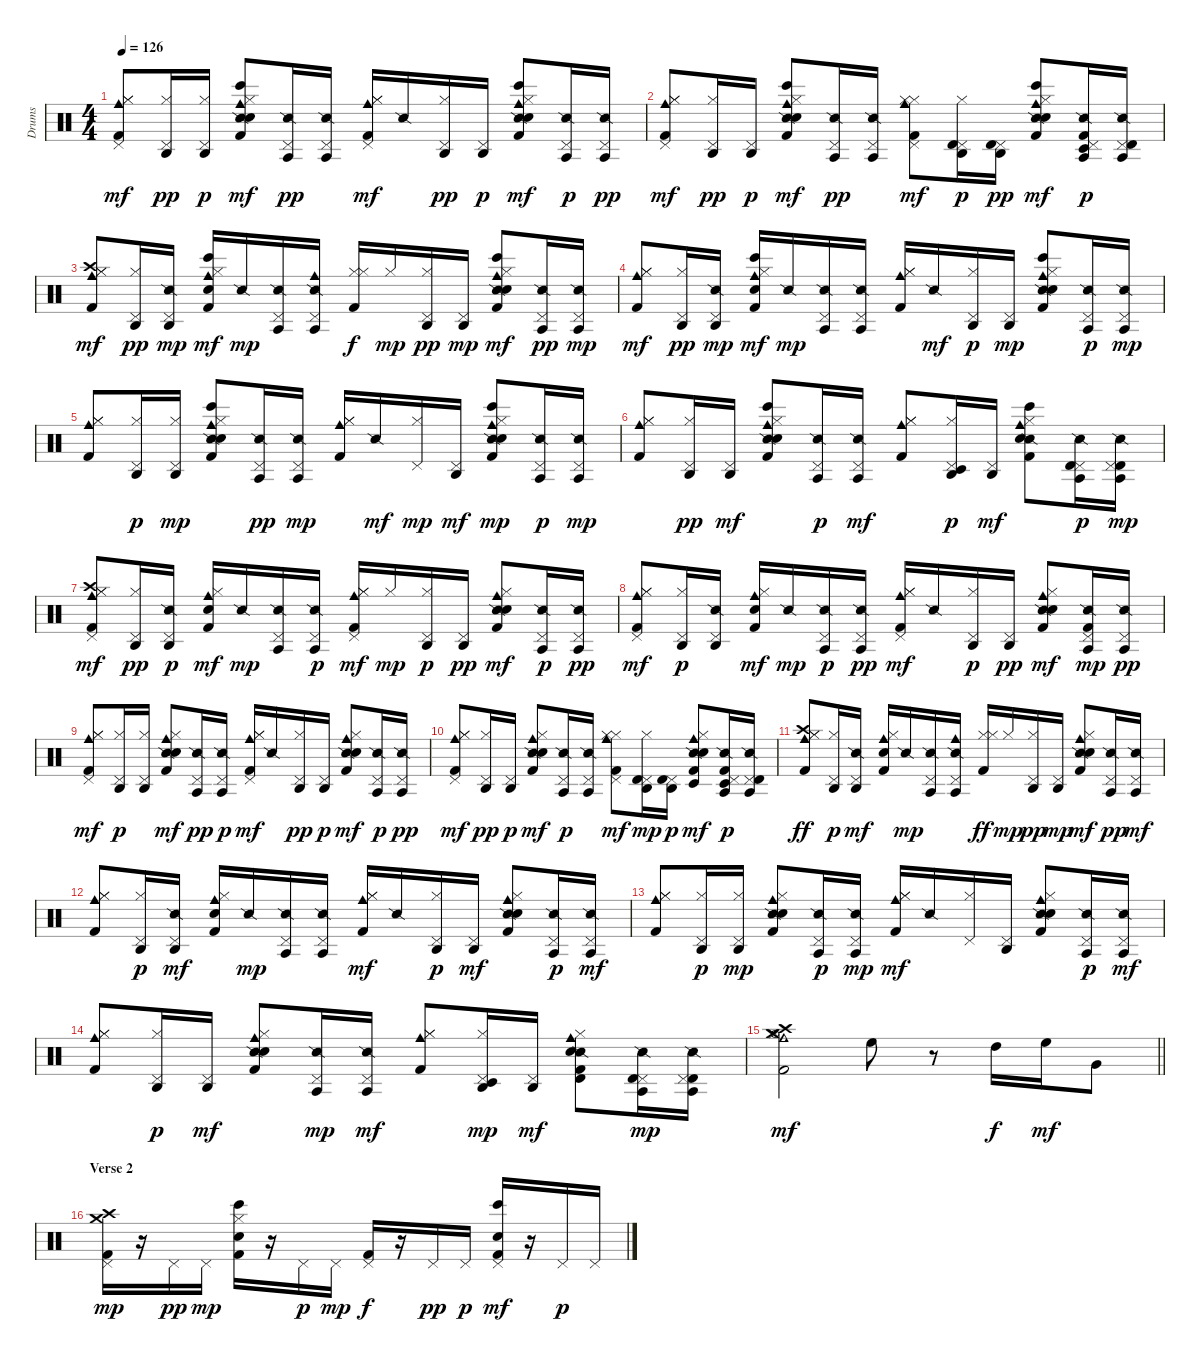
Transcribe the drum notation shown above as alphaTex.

\track ("Drums" "Drums") {instrument percussion}
\staff {score}
\articulation defaults
\ts (4 4)
\tempo 126
\clef neutral
\ks c
("Hi-Hat (closed)" "Kick (hit) 2" "Hi-Hat (closed)" "Pedal Hi-Hat (hit)" "Cowbell medium (hit)").8{dy mf} ("Hi-Hat (closed)" "Pedal Hi-Hat (hit)" "Agogo high (hit)").16{dy pp} ("Hi-Hat (closed)" "Pedal Hi-Hat (hit)" "Agogo high (hit)").16{dy p} ("Bongo High (hit)" "Snare (side stick) 2" "Kick (hit) 2" "Hand Clap (hit)" "Hi-Hat (closed)" "Cowbell medium (hit)").8{dy mf} ("Snare (side stick) 2" "Pedal Hi-Hat (hit)" "Agogo tow (hit)").16{dy pp} ("Snare (side stick) 2" "Pedal Hi-Hat (hit)" "Agogo tow (hit)").16 ("Hi-Hat (closed)" "Kick (hit) 2" "Hi-Hat (closed)" "Pedal Hi-Hat (hit)" "Cowbell medium (hit)").16{dy mf} "Snare (side stick) 2".16 ("Hi-Hat (closed)" "Pedal Hi-Hat (hit)" "Agogo high (hit)").16{dy pp} ("Pedal Hi-Hat (hit)" "Agogo high (hit)").16{dy p} ("Bongo High (hit)" "Snare (side stick) 2" "Kick (hit) 2" "Hand Clap (hit)" "Hi-Hat (closed)" "Cowbell medium (hit)").8{dy mf} ("Snare (side stick) 2" "Pedal Hi-Hat (hit)" "Agogo tow (hit)").16{dy p} ("Snare (side stick) 2" "Pedal Hi-Hat (hit)" "Agogo tow (hit)").16{dy pp} |
("Hi-Hat (closed)" "Kick (hit) 2" "Hi-Hat (closed)" "Pedal Hi-Hat (hit)" "Cowbell medium (hit)").8{dy mf} ("Hi-Hat (closed)" "Pedal Hi-Hat (hit)" "Agogo high (hit)").16{dy pp} ("Pedal Hi-Hat (hit)" "Agogo high (hit)").16{dy p} ("Bongo High (hit)" "Snare (side stick) 2" "Kick (hit) 2" "Hand Clap (hit)" "Hi-Hat (closed)" "Cowbell medium (hit)").8{dy mf} ("Snare (side stick) 2" "Pedal Hi-Hat (hit)" "Agogo tow (hit)").16{dy pp} ("Snare (side stick) 2" "Pedal Hi-Hat (hit)" "Agogo tow (hit)").16 ("Hi-Hat (closed)" "Kick (hit) 2" "Hi-Hat (closed)" "Pedal Hi-Hat (hit)" "Cowbell medium (hit)").8{dy mf} ("Hi-Hat (closed)" "Pedal Hi-Hat (hit)" "Timbale high (hit)" "Agogo high (hit)").16{dy p} ("Pedal Hi-Hat (hit)" "Timbale high (hit)" "Agogo high (hit)").16{dy pp} ("Bongo High (hit)" "Snare (side stick) 2" "Kick (hit) 2" "Hand Clap (hit)" "Hi-Hat (closed)" "Cowbell medium (hit)").8{dy mf} ("Snare (side stick) 2" "Kick (hit) 2" "Pedal Hi-Hat (hit)" "Timbale low (hit)" "Agogo tow (hit)").16{dy p} ("Snare (side stick) 2" "Pedal Hi-Hat (hit)" "Timbale high (hit)" "Agogo tow (hit)").16 |
("Hi-Hat (closed)" "Kick (hit) 2" "Hi-Hat (closed)" "Crash high (hit)" "Cowbell medium (hit)").8{dy mf} ("Hi-Hat (closed)" "Pedal Hi-Hat (hit)" "Agogo high (hit)").16{dy pp} ("Snare (side stick) 2" "Agogo high (hit)" "Pedal Hi-Hat (hit)").16{dy mp} ("Bongo High (hit)" "Kick (hit) 2" "Hand Clap (hit)" "Hi-Hat (closed)" "Cowbell medium (hit)").16{dy mf} "Snare (side stick) 2".16{dy mp} ("Snare (side stick) 2" "Pedal Hi-Hat (hit)" "Agogo tow (hit)").16 ("Snare (side stick) 2" "Cowbell medium (hit)" "Agogo tow (hit)" "Pedal Hi-Hat (hit)").16 ("Hi-Hat (closed)" "Kick (hit) 2" "Hi-Hat (closed)").16{dy f} "Hi-Hat (closed)".16{dy mp} ("Hi-Hat (closed)" "Pedal Hi-Hat (hit)" "Agogo high (hit)").16{dy pp} ("Agogo high (hit)" "Pedal Hi-Hat (hit)").16{dy mp} ("Bongo High (hit)" "Snare (side stick) 2" "Kick (hit) 2" "Hand Clap (hit)" "Hi-Hat (closed)" "Cowbell medium (hit)").8{dy mf} ("Snare (side stick) 2" "Pedal Hi-Hat (hit)" "Agogo tow (hit)").16{dy pp} ("Snare (side stick) 2" "Agogo tow (hit)" "Pedal Hi-Hat (hit)").16{dy mp} |
("Hi-Hat (closed)" "Kick (hit) 2" "Hi-Hat (closed)" "Cowbell medium (hit)").8{dy mf} ("Hi-Hat (closed)" "Pedal Hi-Hat (hit)" "Agogo high (hit)").16{dy pp} ("Snare (side stick) 2" "Agogo high (hit)" "Pedal Hi-Hat (hit)").16{dy mp} ("Bongo High (hit)" "Kick (hit) 2" "Hand Clap (hit)" "Hi-Hat (closed)" "Cowbell medium (hit)").16{dy mf} "Snare (side stick) 2".16{dy mp} ("Snare (side stick) 2" "Pedal Hi-Hat (hit)" "Agogo tow (hit)").16 ("Snare (side stick) 2" "Agogo tow (hit)" "Pedal Hi-Hat (hit)").16 ("Hi-Hat (closed)" "Kick (hit) 2" "Hi-Hat (closed)" "Cowbell medium (hit)").16 "Snare (side stick) 2".16{dy mf} ("Hi-Hat (closed)" "Pedal Hi-Hat (hit)" "Agogo high (hit)").16{dy p} ("Agogo high (hit)" "Pedal Hi-Hat (hit)").16{dy mp} ("Bongo High (hit)" "Snare (side stick) 2" "Kick (hit) 2" "Hand Clap (hit)" "Hi-Hat (closed)" "Cowbell medium (hit)").8 ("Snare (side stick) 2" "Pedal Hi-Hat (hit)" "Agogo tow (hit)").16{dy p} ("Snare (side stick) 2" "Agogo tow (hit)" "Pedal Hi-Hat (hit)").16{dy mp} |
("Hi-Hat (closed)" "Kick (hit) 2" "Hi-Hat (closed)" "Cowbell medium (hit)").8 ("Hi-Hat (closed)" "Pedal Hi-Hat (hit)" "Agogo high (hit)").16{dy p} ("Hi-Hat (closed)" "Agogo high (hit)" "Pedal Hi-Hat (hit)").16{dy mp} ("Bongo High (hit)" "Snare (side stick) 2" "Kick (hit) 2" "Hand Clap (hit)" "Hi-Hat (closed)" "Cowbell medium (hit)").8 ("Snare (side stick) 2" "Pedal Hi-Hat (hit)" "Agogo tow (hit)").16{dy pp} ("Snare (side stick) 2" "Agogo tow (hit)" "Pedal Hi-Hat (hit)").16{dy mp} ("Hi-Hat (closed)" "Kick (hit) 2" "Hi-Hat (closed)" "Cowbell medium (hit)").16 "Snare (side stick) 2".16{dy mf} ("Hi-Hat (closed)" "Pedal Hi-Hat (hit)").16{dy mp} ("Agogo high (hit)" "Pedal Hi-Hat (hit)").16{dy mf} ("Bongo High (hit)" "Snare (side stick) 2" "Kick (hit) 2" "Hand Clap (hit)" "Hi-Hat (closed)" "Cowbell medium (hit)").8{dy mp} ("Snare (side stick) 2" "Pedal Hi-Hat (hit)" "Agogo tow (hit)").16{dy p} ("Snare (side stick) 2" "Agogo tow (hit)" "Pedal Hi-Hat (hit)").16{dy mp} |
("Hi-Hat (closed)" "Kick (hit) 2" "Hi-Hat (closed)" "Cowbell medium (hit)").8 ("Hi-Hat (closed)" "Pedal Hi-Hat (hit)" "Agogo high (hit)").16{dy pp} ("Agogo high (hit)" "Pedal Hi-Hat (hit)").16{dy mf} ("Bongo High (hit)" "Snare (side stick) 2" "Kick (hit) 2" "Hand Clap (hit)" "Hi-Hat (closed)" "Cowbell medium (hit)").8 ("Snare (side stick) 2" "Pedal Hi-Hat (hit)" "Agogo tow (hit)").16{dy p} ("Snare (side stick) 2" "Agogo tow (hit)" "Pedal Hi-Hat (hit)").16{dy mf} ("Hi-Hat (closed)" "Kick (hit) 2" "Hi-Hat (closed)" "Cowbell medium (hit)").8 ("Hi-Hat (closed)" "Pedal Hi-Hat (hit)" "Timbale low (hit)" "Agogo high (hit)").16{dy p} ("Agogo high (hit)" "Pedal Hi-Hat (hit)").16{dy mf} ("Bongo High (hit)" "Snare (side stick) 2" "Kick (hit) 2" "Hand Clap (hit)" "Hi-Hat (closed)" "Cowbell medium (hit)").8 ("Snare (side stick) 2" "Pedal Hi-Hat (hit)" "Timbale high (hit)" "Agogo tow (hit)").16{dy p} ("Snare (side stick) 2" "Timbale high (hit)" "Agogo tow (hit)" "Pedal Hi-Hat (hit)").16{dy mp} |
("Hi-Hat (closed)" "Kick (hit) 2" "Hi-Hat (closed)" "Pedal Hi-Hat (hit)" "Crash high (hit)" "Cowbell medium (hit)").8{dy mf} ("Hi-Hat (closed)" "Pedal Hi-Hat (hit)" "Agogo high (hit)").16{dy pp} ("Snare (side stick) 2" "Pedal Hi-Hat (hit)" "Agogo high (hit)").16{dy p} ("Kick (hit) 2" "Hand Clap (hit)" "Hi-Hat (closed)" "Cowbell medium (hit)").16{dy mf} "Snare (side stick) 2".16{dy mp} ("Snare (side stick) 2" "Pedal Hi-Hat (hit)" "Agogo tow (hit)").16 ("Snare (side stick) 2" "Pedal Hi-Hat (hit)" "Agogo tow (hit)").16{dy p} ("Hi-Hat (closed)" "Kick (hit) 2" "Hi-Hat (closed)" "Pedal Hi-Hat (hit)" "Cowbell medium (hit)").16{dy mf} "Hi-Hat (closed)".16{dy mp} ("Hi-Hat (closed)" "Pedal Hi-Hat (hit)" "Agogo high (hit)").16{dy p} ("Pedal Hi-Hat (hit)" "Agogo high (hit)").16{dy pp} ("Snare (side stick) 2" "Kick (hit) 2" "Hand Clap (hit)" "Hi-Hat (closed)" "Cowbell medium (hit)").8{dy mf} ("Snare (side stick) 2" "Pedal Hi-Hat (hit)" "Agogo tow (hit)").16{dy p} ("Snare (side stick) 2" "Pedal Hi-Hat (hit)" "Agogo tow (hit)").16{dy pp} |
("Hi-Hat (closed)" "Kick (hit) 2" "Hi-Hat (closed)" "Pedal Hi-Hat (hit)" "Cowbell medium (hit)").8{dy mf} ("Hi-Hat (closed)" "Pedal Hi-Hat (hit)" "Agogo high (hit)").16{dy p} ("Snare (side stick) 2" "Pedal Hi-Hat (hit)" "Agogo high (hit)").16 ("Kick (hit) 2" "Hand Clap (hit)" "Hi-Hat (closed)" "Cowbell medium (hit)").16{dy mf} "Snare (side stick) 2".16{dy mp} ("Snare (side stick) 2" "Pedal Hi-Hat (hit)" "Agogo tow (hit)").16{dy p} ("Snare (side stick) 2" "Pedal Hi-Hat (hit)" "Agogo tow (hit)").16{dy pp} ("Hi-Hat (closed)" "Kick (hit) 2" "Hi-Hat (closed)" "Pedal Hi-Hat (hit)" "Cowbell medium (hit)").16{dy mf} "Snare (side stick) 2".16 ("Hi-Hat (closed)" "Pedal Hi-Hat (hit)" "Agogo high (hit)").16{dy p} ("Pedal Hi-Hat (hit)" "Agogo high (hit)").16{dy pp} ("Snare (side stick) 2" "Kick (hit) 2" "Hand Clap (hit)" "Hi-Hat (closed)" "Cowbell medium (hit)").8{dy mf} ("Snare (side stick) 2" "Kick (hit) 2" "Pedal Hi-Hat (hit)" "Agogo tow (hit)").16{dy mp} ("Snare (side stick) 2" "Pedal Hi-Hat (hit)" "Agogo tow (hit)").16{dy pp} |
("Hi-Hat (closed)" "Kick (hit) 2" "Hi-Hat (closed)" "Pedal Hi-Hat (hit)" "Cowbell medium (hit)").8{dy mf} ("Hi-Hat (closed)" "Pedal Hi-Hat (hit)" "Agogo high (hit)").16{dy p} ("Hi-Hat (closed)" "Pedal Hi-Hat (hit)" "Agogo high (hit)").16 ("Snare (side stick) 2" "Kick (hit) 2" "Hand Clap (hit)" "Hi-Hat (closed)" "Cowbell medium (hit)").8{dy mf} ("Snare (side stick) 2" "Pedal Hi-Hat (hit)" "Agogo tow (hit)").16{dy pp} ("Snare (side stick) 2" "Pedal Hi-Hat (hit)" "Agogo tow (hit)").16{dy p} ("Hi-Hat (closed)" "Kick (hit) 2" "Hi-Hat (closed)" "Pedal Hi-Hat (hit)" "Cowbell medium (hit)").16{dy mf} "Snare (side stick) 2".16 ("Hi-Hat (closed)" "Pedal Hi-Hat (hit)" "Agogo high (hit)").16{dy pp} ("Pedal Hi-Hat (hit)" "Agogo high (hit)").16{dy p} ("Snare (side stick) 2" "Kick (hit) 2" "Hand Clap (hit)" "Hi-Hat (closed)" "Cowbell medium (hit)").8{dy mf} ("Snare (side stick) 2" "Pedal Hi-Hat (hit)" "Agogo tow (hit)").16{dy p} ("Snare (side stick) 2" "Pedal Hi-Hat (hit)" "Agogo tow (hit)").16{dy pp} |
("Hi-Hat (closed)" "Kick (hit) 2" "Hi-Hat (closed)" "Pedal Hi-Hat (hit)" "Cowbell medium (hit)").8{dy mf} ("Hi-Hat (closed)" "Pedal Hi-Hat (hit)" "Agogo high (hit)").16{dy pp} ("Pedal Hi-Hat (hit)" "Agogo high (hit)").16{dy p} ("Snare (side stick) 2" "Kick (hit) 2" "Hand Clap (hit)" "Hi-Hat (closed)" "Cowbell medium (hit)").8{dy mf} ("Snare (side stick) 2" "Pedal Hi-Hat (hit)" "Agogo tow (hit)").16{dy p} ("Snare (side stick) 2" "Pedal Hi-Hat (hit)" "Agogo tow (hit)").16 ("Hi-Hat (closed)" "Kick (hit) 2" "Hi-Hat (closed)" "Pedal Hi-Hat (hit)" "Cowbell medium (hit)").8{dy mf} ("Hi-Hat (closed)" "Pedal Hi-Hat (hit)" "Timbale high (hit)" "Agogo high (hit)").16{dy mp} ("Pedal Hi-Hat (hit)" "Timbale high (hit)" "Agogo high (hit)").16{dy p} ("Snare (side stick) 2" "Kick (hit) 2" "Hand Clap (hit)" "Hi-Hat (closed)" "Cowbell medium (hit)" "Timbale low (hit)").8{dy mf} ("Snare (side stick) 2" "Kick (hit) 2" "Pedal Hi-Hat (hit)" "Timbale low (hit)" "Agogo tow (hit)").16{dy p} ("Snare (side stick) 2" "Pedal Hi-Hat (hit)" "Timbale high (hit)" "Agogo tow (hit)").16 |
("Hi-Hat (closed)" "Kick (hit) 2" "Hi-Hat (closed)" "Crash high (hit)" "Cowbell medium (hit)").8{dy ff} ("Hi-Hat (closed)" "Pedal Hi-Hat (hit)" "Agogo high (hit)").16{dy p} ("Snare (side stick) 2" "Agogo high (hit)" "Pedal Hi-Hat (hit)").16{dy mf} ("Kick (hit) 2" "Hand Clap (hit)" "Hi-Hat (closed)" "Cowbell medium (hit)").16 "Snare (side stick) 2".16{dy mp} ("Snare (side stick) 2" "Pedal Hi-Hat (hit)" "Agogo tow (hit)").16 ("Snare (side stick) 2" "Cowbell medium (hit)" "Agogo tow (hit)" "Pedal Hi-Hat (hit)").16 ("Hi-Hat (closed)" "Kick (hit) 2" "Hi-Hat (closed)").16{dy ff} "Hi-Hat (closed)".16{dy mp} ("Hi-Hat (closed)" "Pedal Hi-Hat (hit)" "Agogo high (hit)").16{dy pp} ("Agogo high (hit)" "Pedal Hi-Hat (hit)").16{dy mp} ("Snare (side stick) 2" "Kick (hit) 2" "Hand Clap (hit)" "Hi-Hat (closed)" "Cowbell medium (hit)").8{dy mf} ("Snare (side stick) 2" "Pedal Hi-Hat (hit)" "Agogo tow (hit)").16{dy pp} ("Snare (side stick) 2" "Agogo tow (hit)" "Pedal Hi-Hat (hit)").16{dy mf} |
("Hi-Hat (closed)" "Kick (hit) 2" "Hi-Hat (closed)" "Cowbell medium (hit)").8 ("Hi-Hat (closed)" "Pedal Hi-Hat (hit)" "Agogo high (hit)").16{dy p} ("Snare (side stick) 2" "Agogo high (hit)" "Pedal Hi-Hat (hit)").16{dy mf} ("Kick (hit) 2" "Hand Clap (hit)" "Hi-Hat (closed)" "Cowbell medium (hit)").16 "Snare (side stick) 2".16{dy mp} ("Snare (side stick) 2" "Pedal Hi-Hat (hit)" "Agogo tow (hit)").16 ("Snare (side stick) 2" "Agogo tow (hit)" "Pedal Hi-Hat (hit)").16 ("Hi-Hat (closed)" "Kick (hit) 2" "Hi-Hat (closed)" "Cowbell medium (hit)").16{dy mf} "Snare (side stick) 2".16 ("Hi-Hat (closed)" "Pedal Hi-Hat (hit)" "Agogo high (hit)").16{dy p} ("Agogo high (hit)" "Pedal Hi-Hat (hit)").16{dy mf} ("Snare (side stick) 2" "Kick (hit) 2" "Hand Clap (hit)" "Hi-Hat (closed)" "Cowbell medium (hit)").8 ("Snare (side stick) 2" "Pedal Hi-Hat (hit)" "Agogo tow (hit)").16{dy p} ("Snare (side stick) 2" "Agogo tow (hit)" "Pedal Hi-Hat (hit)").16{dy mf} |
("Hi-Hat (closed)" "Kick (hit) 2" "Hi-Hat (closed)" "Cowbell medium (hit)").8 ("Hi-Hat (closed)" "Pedal Hi-Hat (hit)" "Agogo high (hit)").16{dy p} ("Hi-Hat (closed)" "Agogo high (hit)" "Pedal Hi-Hat (hit)").16{dy mp} ("Snare (side stick) 2" "Kick (hit) 2" "Hand Clap (hit)" "Hi-Hat (closed)" "Cowbell medium (hit)").8 ("Snare (side stick) 2" "Pedal Hi-Hat (hit)" "Agogo tow (hit)").16{dy p} ("Snare (side stick) 2" "Agogo tow (hit)" "Pedal Hi-Hat (hit)").16{dy mp} ("Hi-Hat (closed)" "Kick (hit) 2" "Hi-Hat (closed)" "Cowbell medium (hit)").16{dy mf} "Snare (side stick) 2".16 ("Hi-Hat (closed)" "Pedal Hi-Hat (hit)").16 ("Agogo high (hit)" "Pedal Hi-Hat (hit)").16 ("Snare (side stick) 2" "Kick (hit) 2" "Hand Clap (hit)" "Hi-Hat (closed)" "Cowbell medium (hit)").8 ("Snare (side stick) 2" "Pedal Hi-Hat (hit)" "Agogo tow (hit)").16{dy p} ("Snare (side stick) 2" "Agogo tow (hit)" "Pedal Hi-Hat (hit)").16{dy mf} |
("Hi-Hat (closed)" "Kick (hit) 2" "Hi-Hat (closed)" "Cowbell medium (hit)").8 ("Hi-Hat (closed)" "Pedal Hi-Hat (hit)" "Agogo high (hit)").16{dy p} ("Agogo high (hit)" "Pedal Hi-Hat (hit)").16{dy mf} ("Snare (side stick) 2" "Kick (hit) 2" "Hand Clap (hit)" "Hi-Hat (closed)" "Cowbell medium (hit)").8 ("Snare (side stick) 2" "Pedal Hi-Hat (hit)" "Agogo tow (hit)").16{dy mp} ("Snare (side stick) 2" "Agogo tow (hit)" "Pedal Hi-Hat (hit)").16{dy mf} ("Hi-Hat (closed)" "Kick (hit) 2" "Hi-Hat (closed)" "Cowbell medium (hit)").8 ("Hi-Hat (closed)" "Pedal Hi-Hat (hit)" "Timbale low (hit)" "Agogo high (hit)").16{dy mp} ("Agogo high (hit)" "Pedal Hi-Hat (hit)").16{dy mf} ("Snare (side stick) 2" "Kick (hit) 2" "Hand Clap (hit)" "Hi-Hat (closed)" "Cowbell medium (hit)" "Timbale high (hit)").8 ("Snare (side stick) 2" "Pedal Hi-Hat (hit)" "Timbale high (hit)" "Agogo tow (hit)").16{dy mp} ("Snare (side stick) 2" "Timbale high (hit)" "Agogo tow (hit)" "Pedal Hi-Hat (hit)").16 |
\barLineRight lightlight
("Hi-Hat (closed)" "Kick (hit) 2" "Hi-Hat (open)" "Crash high (hit)" "Cowbell medium (hit)" "Crash medium (hit)").2{dy mf} "High Floor Tom (hit)".8 r.8 "High Tom (hit)".16{dy f} "High Floor Tom (hit)".16{dy mf} "Very Low Tom (hit)".8 |
\section ("" "Verse 2")
("Kick (hit) 2" "Pedal Hi-Hat (hit)" "Crash high (hit)" "Crash medium (hit)").16{dy mp} r.16 "Pedal Hi-Hat (hit)".16{dy pp} "Pedal Hi-Hat (hit)".16{dy mp} ("Bongo High (hit)" "Kick (hit) 2" "Hand Clap (hit)" "Hi-Hat (closed)").16 r.16 "Pedal Hi-Hat (hit)".16{dy p} "Pedal Hi-Hat (hit)".16{dy mp} ("Kick (hit) 2" "Pedal Hi-Hat (hit)").16{dy f} r.16 "Pedal Hi-Hat (hit)".16{dy pp} "Pedal Hi-Hat (hit)".16{dy p} ("Bongo High (hit)" "Kick (hit) 2" "Hand Clap (hit)" "Pedal Hi-Hat (hit)").16{dy mf} r.16 "Pedal Hi-Hat (hit)".16{dy p} "Pedal Hi-Hat (hit)".16
